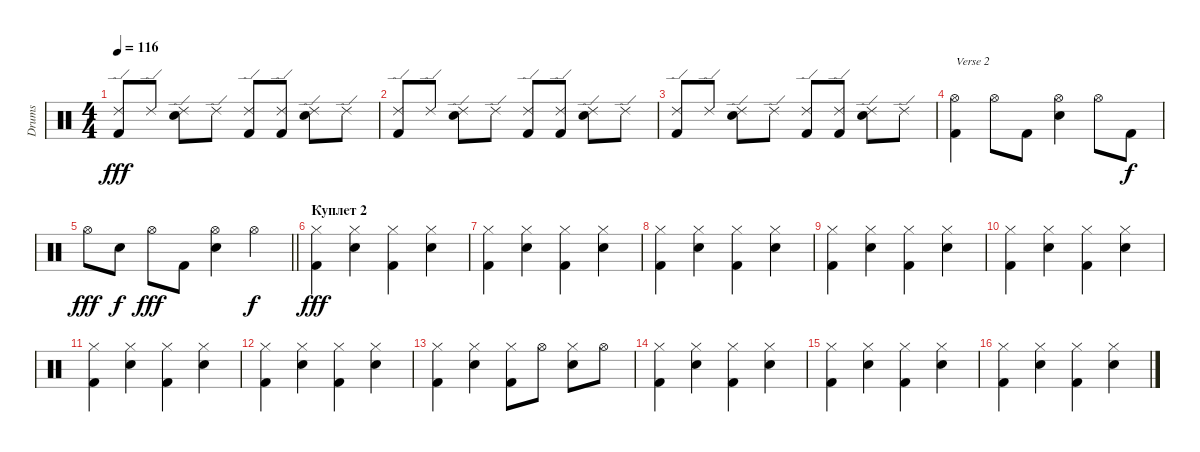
\track ("Drums" "Drums") {instrument percussion}
\staff {score}
\articulation defaults
\ts (4 4)
\tempo 116
\clef neutral
\ks c
("Ride (edge) 2" "Kick (hit) 2").8{dy fff} "Ride (edge) 2".8 ("Ride (edge) 2" "Snare (hit) 2").8 "Ride (edge) 2".8 ("Ride (edge) 2" "Kick (hit) 2").8 ("Ride (edge) 2" "Kick (hit) 2").8 ("Ride (edge) 2" "Snare (hit) 2").8 "Ride (edge) 2".8 |
("Ride (edge) 2" "Kick (hit) 2").8 "Ride (edge) 2".8 ("Ride (edge) 2" "Snare (hit) 2").8 "Ride (edge) 2".8 ("Ride (edge) 2" "Kick (hit) 2").8 ("Ride (edge) 2" "Kick (hit) 2").8 ("Ride (edge) 2" "Snare (hit) 2").8 "Ride (edge) 2".8 |
("Ride (edge) 2" "Kick (hit) 2").8 "Ride (edge) 2".8 ("Ride (edge) 2" "Snare (hit) 2").8 "Ride (edge) 2".8 ("Ride (edge) 2" "Kick (hit) 2").8 ("Ride (edge) 2" "Kick (hit) 2").8 ("Ride (edge) 2" "Snare (hit) 2").8 "Ride (edge) 2".8 |
("Hi-Hat (open)" "Kick (hit) 2").4{txt "Verse 2"} "Hi-Hat (open)".8 "Kick (hit) 2".8 ("Hi-Hat (open)" "Snare (hit) 2").4 "Hi-Hat (open)".8 "Kick (hit) 2".8{dy f} |
\barLineRight lightlight "Hi-Hat (open)".8{dy fff} "Snare (hit) 2".8{dy f} "Hi-Hat (open)".8{dy fff} "Kick (hit) 2".8
("Hi-Hat (open)" "Snare (hit) 2").4 "Hi-Hat (open)".4{dy f} |
\section ("" "Куплет 2")
("Hi-Hat (closed)" "Kick (hit) 2").4{dy fff} ("Hi-Hat (closed)" "Snare (hit) 2").4 ("Hi-Hat (closed)" "Kick (hit) 2").4 ("Hi-Hat (closed)" "Snare (hit) 2").4 |
("Hi-Hat (closed)" "Kick (hit) 2").4 ("Hi-Hat (closed)" "Snare (hit) 2").4 ("Hi-Hat (closed)" "Kick (hit) 2").4 ("Hi-Hat (closed)" "Snare (hit) 2").4 |
("Hi-Hat (closed)" "Kick (hit) 2").4 ("Hi-Hat (closed)" "Snare (hit) 2").4 ("Hi-Hat (closed)" "Kick (hit) 2").4 ("Hi-Hat (closed)" "Snare (hit) 2").4 |
("Hi-Hat (closed)" "Kick (hit) 2").4 ("Hi-Hat (closed)" "Snare (hit) 2").4 ("Hi-Hat (closed)" "Kick (hit) 2").4 ("Hi-Hat (closed)" "Snare (hit) 2").4 |
("Hi-Hat (closed)" "Kick (hit) 2").4 ("Hi-Hat (closed)" "Snare (hit) 2").4 ("Hi-Hat (closed)" "Kick (hit) 2").4 ("Hi-Hat (closed)" "Snare (hit) 2").4 |
("Hi-Hat (closed)" "Kick (hit) 2").4 ("Hi-Hat (closed)" "Snare (hit) 2").4 ("Hi-Hat (closed)" "Kick (hit) 2").4 ("Hi-Hat (closed)" "Snare (hit) 2").4 |
("Hi-Hat (closed)" "Kick (hit) 2").4 ("Hi-Hat (closed)" "Snare (hit) 2").4 ("Hi-Hat (closed)" "Kick (hit) 2").4 ("Hi-Hat (closed)" "Snare (hit) 2").4 |
("Hi-Hat (closed)" "Kick (hit) 2").4 ("Hi-Hat (closed)" "Snare (hit) 2").4 ("Hi-Hat (closed)" "Kick (hit) 2").8 "Hi-Hat (open)".8 ("Hi-Hat (closed)" "Snare (hit) 2").8 "Hi-Hat (open)".8 |
("Hi-Hat (closed)" "Kick (hit) 2").4 ("Hi-Hat (closed)" "Snare (hit) 2").4 ("Hi-Hat (closed)" "Kick (hit) 2").4 ("Hi-Hat (closed)" "Snare (hit) 2").4 |
("Hi-Hat (closed)" "Kick (hit) 2").4 ("Hi-Hat (closed)" "Snare (hit) 2").4 ("Hi-Hat (closed)" "Kick (hit) 2").4 ("Hi-Hat (closed)" "Snare (hit) 2").4 |
("Hi-Hat (closed)" "Kick (hit) 2").4 ("Hi-Hat (closed)" "Snare (hit) 2").4 ("Hi-Hat (closed)" "Kick (hit) 2").4 ("Hi-Hat (closed)" "Snare (hit) 2").4
